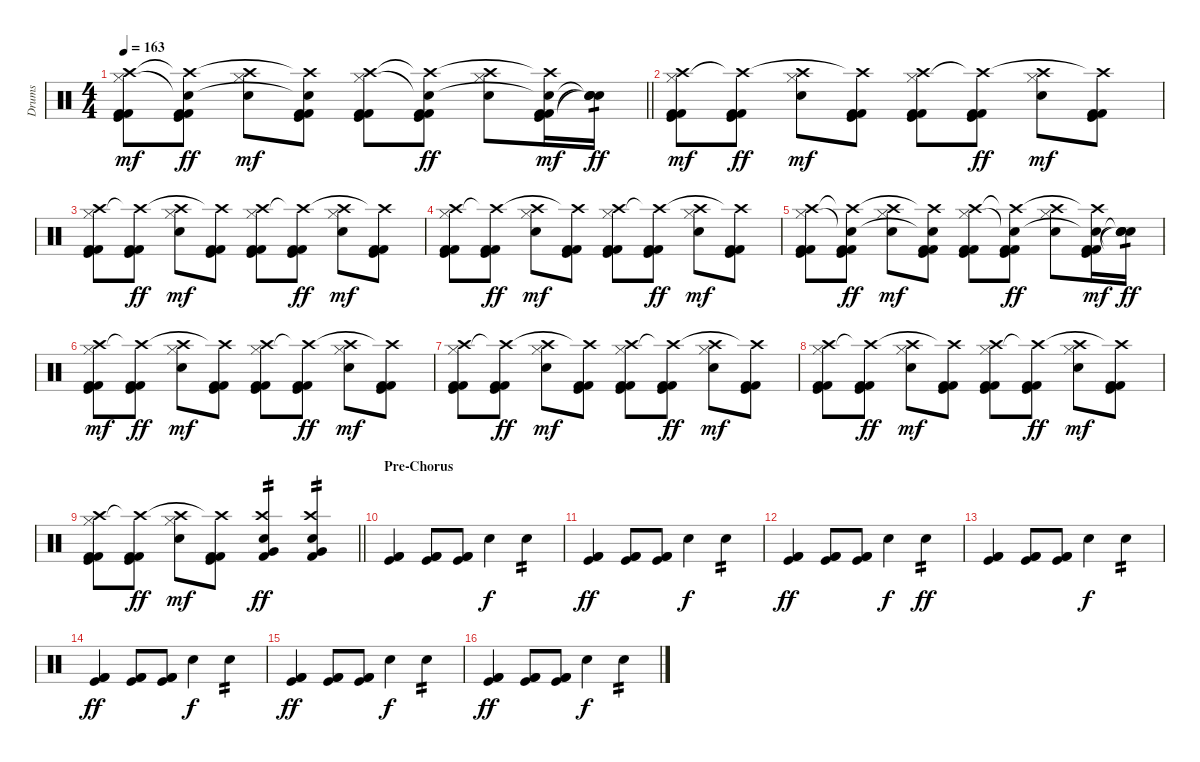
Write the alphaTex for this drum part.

\track ("Drums" "Drums") {instrument percussion}
\staff {score}
\articulation defaults
\ts (4 4)
\tempo 163
\clef neutral
\barLineRight lightlight
\ks c
("Kick (hit) 2" "Kick (hit) 2" "Kick (hit)" "Hi-Hat (closed)" "Crash high (hit)").8{dy mf} ("Kick (hit) 2" "Kick (hit) 2" "Kick (hit)" "Snare (hit)"{t} "Crash high (hit)"{t}).8{dy ff} ("Electric Snare (hit)" "Hi-Hat (closed)" "Crash high (hit)").8{dy mf} ("Kick (hit) 2" "Kick (hit) 2" "Kick (hit)" "Snare (hit)"{t} "Crash high (hit)"{t}).8 ("Kick (hit) 2" "Kick (hit) 2" "Kick (hit)" "Hi-Hat (closed)" "Crash high (hit)").8 ("Kick (hit) 2" "Kick (hit) 2" "Kick (hit)" "Snare (hit)"{t} "Crash high (hit)"{t}).8{dy ff} ("Electric Snare (hit)" "Hi-Hat (closed)" "Crash high (hit)").8 ("Kick (hit) 2" "Kick (hit) 2" "Kick (hit)" "Snare (hit)"{t} "Crash high (hit)"{t}).16{dy mf} ("Snare (hit)"{t} "Electric Snare (hit)" "Snare (hit)"{t} "Snare (hit)"{t}).16{tp 1 dy ff} |
("Kick (hit) 2" "Kick (hit) 2" "Kick (hit)" "Hi-Hat (closed)" "Crash high (hit)").8{dy mf} ("Kick (hit) 2" "Kick (hit) 2" "Kick (hit)" "Crash high (hit)"{t}).8{dy ff} ("Electric Snare (hit)" "Hi-Hat (closed)" "Crash high (hit)").8{dy mf} ("Kick (hit) 2" "Kick (hit) 2" "Kick (hit)" "Crash high (hit)"{t}).8 ("Kick (hit) 2" "Kick (hit) 2" "Kick (hit)" "Hi-Hat (closed)" "Crash high (hit)").8 ("Kick (hit) 2" "Kick (hit) 2" "Kick (hit)" "Crash high (hit)"{t}).8{dy ff} ("Electric Snare (hit)" "Hi-Hat (closed)" "Crash high (hit)").8{dy mf} ("Kick (hit) 2" "Kick (hit) 2" "Kick (hit)" "Crash high (hit)"{t}).8 |
("Kick (hit) 2" "Kick (hit) 2" "Kick (hit)" "Hi-Hat (closed)" "Crash high (hit)").8 ("Kick (hit) 2" "Kick (hit) 2" "Kick (hit)" "Crash high (hit)"{t}).8{dy ff} ("Electric Snare (hit)" "Hi-Hat (closed)" "Crash high (hit)").8{dy mf} ("Kick (hit) 2" "Kick (hit) 2" "Kick (hit)" "Crash high (hit)"{t}).8 ("Kick (hit) 2" "Kick (hit) 2" "Kick (hit)" "Hi-Hat (closed)" "Crash high (hit)").8 ("Kick (hit) 2" "Kick (hit) 2" "Kick (hit)" "Crash high (hit)"{t}).8{dy ff} ("Electric Snare (hit)" "Hi-Hat (closed)" "Crash high (hit)").8{dy mf} ("Kick (hit) 2" "Kick (hit) 2" "Kick (hit)" "Crash high (hit)"{t}).8 |
("Kick (hit) 2" "Kick (hit) 2" "Kick (hit)" "Hi-Hat (closed)" "Crash high (hit)").8 ("Kick (hit) 2" "Kick (hit) 2" "Kick (hit)" "Crash high (hit)"{t}).8{dy ff} ("Electric Snare (hit)" "Hi-Hat (closed)" "Crash high (hit)").8{dy mf} ("Kick (hit) 2" "Kick (hit) 2" "Kick (hit)" "Crash high (hit)"{t}).8 ("Kick (hit) 2" "Kick (hit) 2" "Kick (hit)" "Hi-Hat (closed)" "Crash high (hit)").8 ("Kick (hit) 2" "Kick (hit) 2" "Kick (hit)" "Crash high (hit)"{t}).8{dy ff} ("Electric Snare (hit)" "Hi-Hat (closed)" "Crash high (hit)").8{dy mf} ("Kick (hit) 2" "Kick (hit) 2" "Kick (hit)" "Crash high (hit)"{t}).8 |
("Kick (hit) 2" "Kick (hit) 2" "Kick (hit)" "Hi-Hat (closed)" "Crash high (hit)").8 ("Kick (hit) 2" "Kick (hit) 2" "Kick (hit)" "Snare (hit)"{t} "Crash high (hit)"{t}).8{dy ff} ("Electric Snare (hit)" "Hi-Hat (closed)" "Crash high (hit)").8{dy mf} ("Kick (hit) 2" "Kick (hit) 2" "Kick (hit)" "Snare (hit)"{t} "Crash high (hit)"{t}).8 ("Kick (hit) 2" "Kick (hit) 2" "Kick (hit)" "Hi-Hat (closed)" "Crash high (hit)").8 ("Kick (hit) 2" "Kick (hit) 2" "Kick (hit)" "Snare (hit)"{t} "Crash high (hit)"{t}).8{dy ff} ("Electric Snare (hit)" "Hi-Hat (closed)" "Crash high (hit)").8 ("Kick (hit) 2" "Kick (hit) 2" "Kick (hit)" "Snare (hit)"{t} "Crash high (hit)"{t}).16{dy mf} ("Snare (hit)"{t} "Electric Snare (hit)" "Snare (hit)"{t} "Snare (hit)"{t}).16{tp 1 dy ff} |
("Kick (hit) 2" "Kick (hit) 2" "Kick (hit)" "Hi-Hat (closed)" "Crash high (hit)").8{dy mf} ("Kick (hit) 2" "Kick (hit) 2" "Kick (hit)" "Crash high (hit)"{t}).8{dy ff} ("Electric Snare (hit)" "Hi-Hat (closed)" "Crash high (hit)").8{dy mf} ("Kick (hit) 2" "Kick (hit) 2" "Kick (hit)" "Crash high (hit)"{t}).8 ("Kick (hit) 2" "Kick (hit) 2" "Kick (hit)" "Hi-Hat (closed)" "Crash high (hit)").8 ("Kick (hit) 2" "Kick (hit) 2" "Kick (hit)" "Crash high (hit)"{t}).8{dy ff} ("Electric Snare (hit)" "Hi-Hat (closed)" "Crash high (hit)").8{dy mf} ("Kick (hit) 2" "Kick (hit) 2" "Kick (hit)" "Crash high (hit)"{t}).8 |
("Kick (hit) 2" "Kick (hit) 2" "Kick (hit)" "Hi-Hat (closed)" "Crash high (hit)").8 ("Kick (hit) 2" "Kick (hit) 2" "Kick (hit)" "Crash high (hit)"{t}).8{dy ff} ("Electric Snare (hit)" "Hi-Hat (closed)" "Crash high (hit)").8{dy mf} ("Kick (hit) 2" "Kick (hit) 2" "Kick (hit)" "Crash high (hit)"{t}).8 ("Kick (hit) 2" "Kick (hit) 2" "Kick (hit)" "Hi-Hat (closed)" "Crash high (hit)").8 ("Kick (hit) 2" "Kick (hit) 2" "Kick (hit)" "Crash high (hit)"{t}).8{dy ff} ("Electric Snare (hit)" "Hi-Hat (closed)" "Crash high (hit)").8{dy mf} ("Kick (hit) 2" "Kick (hit) 2" "Kick (hit)" "Crash high (hit)"{t}).8 |
("Kick (hit) 2" "Kick (hit) 2" "Kick (hit)" "Hi-Hat (closed)" "Crash high (hit)").8 ("Kick (hit) 2" "Kick (hit) 2" "Kick (hit)" "Crash high (hit)"{t}).8{dy ff} ("Electric Snare (hit)" "Hi-Hat (closed)" "Crash high (hit)").8{dy mf} ("Kick (hit) 2" "Kick (hit) 2" "Kick (hit)" "Crash high (hit)"{t}).8 ("Kick (hit) 2" "Kick (hit) 2" "Kick (hit)" "Hi-Hat (closed)" "Crash high (hit)").8 ("Kick (hit) 2" "Kick (hit) 2" "Kick (hit)" "Crash high (hit)"{t}).8{dy ff} ("Electric Snare (hit)" "Hi-Hat (closed)" "Crash high (hit)").8{dy mf} ("Kick (hit) 2" "Kick (hit) 2" "Kick (hit)" "Crash high (hit)"{t}).8 |
\barLineRight lightlight
("Kick (hit) 2" "Kick (hit) 2" "Kick (hit)" "Hi-Hat (closed)" "Crash high (hit)").8 ("Kick (hit) 2" "Kick (hit) 2" "Kick (hit)" "Crash high (hit)"{t}).8{dy ff} ("Electric Snare (hit)" "Hi-Hat (closed)" "Crash high (hit)").8{dy mf} ("Kick (hit) 2" "Kick (hit) 2" "Kick (hit)" "Crash high (hit)"{t}).8 ("Kick (hit) 2" "Electric Snare (hit)" "Very Low Tom (hit)" "Crash high (hit)").4{tp 2 dy ff} ("Kick (hit) 2" "Electric Snare (hit)" "Very Low Tom (hit)" "Crash high (hit)").4{tp 2} |
\section ("" "Pre-Chorus")
("Kick (hit) 2" "Kick (hit) 2" "Kick (hit)").4 ("Kick (hit) 2" "Kick (hit) 2" "Kick (hit)").8 ("Kick (hit) 2" "Kick (hit) 2" "Kick (hit)").8 "Electric Snare (hit)".4{dy f} "Electric Snare (hit)".4{tp 2} |
("Kick (hit) 2" "Kick (hit) 2" "Kick (hit)").4{dy ff} ("Kick (hit) 2" "Kick (hit) 2" "Kick (hit)").8 ("Kick (hit) 2" "Kick (hit) 2" "Kick (hit)").8 "Electric Snare (hit)".4{dy f} "Electric Snare (hit)".4{tp 2} |
("Kick (hit) 2" "Kick (hit) 2" "Kick (hit)").4{dy ff} ("Kick (hit) 2" "Kick (hit) 2" "Kick (hit)").8 ("Kick (hit) 2" "Kick (hit) 2" "Kick (hit)").8 "Electric Snare (hit)".4{dy f} "Electric Snare (hit)".4{tp 2 dy ff} |
("Kick (hit) 2" "Kick (hit) 2" "Kick (hit)").4 ("Kick (hit) 2" "Kick (hit) 2" "Kick (hit)").8 ("Kick (hit) 2" "Kick (hit) 2" "Kick (hit)").8 "Electric Snare (hit)".4{dy f} "Electric Snare (hit)".4{tp 2} |
("Kick (hit) 2" "Kick (hit) 2" "Kick (hit)").4{dy ff} ("Kick (hit) 2" "Kick (hit) 2" "Kick (hit)").8 ("Kick (hit) 2" "Kick (hit) 2" "Kick (hit)").8 "Electric Snare (hit)".4{dy f} "Electric Snare (hit)".4{tp 2} |
("Kick (hit) 2" "Kick (hit) 2" "Kick (hit)").4{dy ff} ("Kick (hit) 2" "Kick (hit) 2" "Kick (hit)").8 ("Kick (hit) 2" "Kick (hit) 2" "Kick (hit)").8 "Electric Snare (hit)".4{dy f} "Electric Snare (hit)".4{tp 2} |
("Kick (hit) 2" "Kick (hit) 2" "Kick (hit)").4{dy ff} ("Kick (hit) 2" "Kick (hit) 2" "Kick (hit)").8 ("Kick (hit) 2" "Kick (hit) 2" "Kick (hit)").8 "Electric Snare (hit)".4{dy f} "Electric Snare (hit)".4{tp 2}
